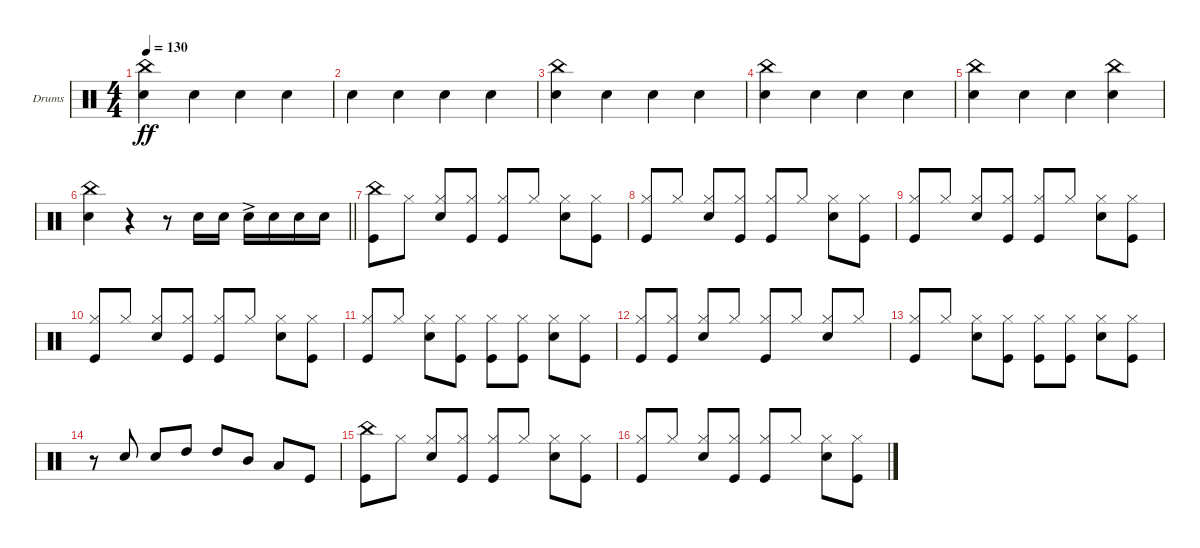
\defaultSystemsLayout 4
\bracketExtendMode groupsimilarinstruments
\firstSystemTrackNameOrientation horizontal
\otherSystemsTrackNameOrientation horizontal
\track ("Drumkit" "Drums") {instrument percussion}
\staff {score}
\articulation defaults
\ts (4 4)
\tempo 130
\clef neutral
\scale
0.333333
\ks c
("Snare (hit) 2" "China (hit)").4{dy ff} "Snare (hit) 2".4 "Snare (hit) 2".4 "Snare (hit) 2".4 |
\scale
0.333333 "Snare (hit) 2".4 "Snare (hit) 2".4 "Snare (hit) 2".4 "Snare (hit) 2".4 |
\scale
0.333333 ("Snare (hit) 2" "China (hit)").4 "Snare (hit) 2".4 "Snare (hit) 2".4 "Snare (hit) 2".4 |
\scale
0.333333 ("Snare (hit) 2" "China (hit)").4 "Snare (hit) 2".4 "Snare (hit) 2".4 "Snare (hit) 2".4 |
\scale
0.333333 ("Snare (hit) 2" "China (hit)").4 "Snare (hit) 2".4 "Snare (hit) 2".4 ("Snare (hit) 2" "China (hit)").4 |
\scale
0.333333
\barLineRight lightlight
("China (hit)" "Snare (hit) 2").4 r.4 r.8 "Snare (hit) 2".16 "Snare (hit) 2".16 "Snare (hit) 2"{ac}.16 "Snare (hit) 2".16 "Snare (hit) 2".16 "Snare (hit) 2".16 |
\scale
0.333333 ("Kick (hit)" "China (hit)").8 "Hi-Hat (closed)".8 ("Hi-Hat (closed)" "Snare (hit) 2").8 ("Hi-Hat (closed)" "Kick (hit)").8 ("Hi-Hat (closed)" "Kick (hit)").8{beam invert} "Hi-Hat (closed)".8 ("Hi-Hat (closed)" "Snare (hit) 2").8 ("Hi-Hat (closed)" "Kick (hit)").8 |
\scale
0.333333 ("Hi-Hat (closed)" "Kick (hit)").8{beam invert} "Hi-Hat (closed)".8 ("Hi-Hat (closed)" "Snare (hit) 2").8 ("Hi-Hat (closed)" "Kick (hit)").8 ("Hi-Hat (closed)" "Kick (hit)").8{beam invert} "Hi-Hat (closed)".8 ("Hi-Hat (closed)" "Snare (hit) 2").8 ("Hi-Hat (closed)" "Kick (hit)").8 |
\scale
0.333333 ("Hi-Hat (closed)" "Kick (hit)").8{beam invert} "Hi-Hat (closed)".8 ("Hi-Hat (closed)" "Snare (hit) 2").8 ("Hi-Hat (closed)" "Kick (hit)").8 ("Hi-Hat (closed)" "Kick (hit)").8{beam invert} "Hi-Hat (closed)".8 ("Hi-Hat (closed)" "Snare (hit) 2").8 ("Hi-Hat (closed)" "Kick (hit)").8 |
\scale
0.333333 ("Hi-Hat (closed)" "Kick (hit)").8{beam invert} "Hi-Hat (closed)".8 ("Hi-Hat (closed)" "Snare (hit) 2").8 ("Hi-Hat (closed)" "Kick (hit)").8 ("Hi-Hat (closed)" "Kick (hit)").8{beam invert} "Hi-Hat (closed)".8 ("Hi-Hat (closed)" "Snare (hit) 2").8 ("Hi-Hat (closed)" "Kick (hit)").8 |
\scale
0.333333 ("Kick (hit)" "Hi-Hat (closed)").8{beam invert} "Hi-Hat (closed)".8 ("Snare (hit) 2" "Hi-Hat (closed)").8 ("Kick (hit)" "Hi-Hat (closed)").8 ("Kick (hit)" "Hi-Hat (closed)").8 ("Kick (hit)" "Hi-Hat (closed)").8 ("Snare (hit) 2" "Hi-Hat (closed)").8 ("Kick (hit)" "Hi-Hat (closed)").8 |
\scale
0.333333 ("Kick (hit)" "Hi-Hat (closed)").8 ("Kick (hit)" "Hi-Hat (closed)").8 ("Snare (hit) 2" "Hi-Hat (closed)").8{beam invert} "Hi-Hat (closed)".8 ("Hi-Hat (closed)" "Kick (hit)").8{beam invert} "Hi-Hat (closed)".8 ("Hi-Hat (closed)" "Snare (hit) 2").8{beam invert} "Hi-Hat (closed)".8 |
\scale
0.333333 ("Kick (hit)" "Hi-Hat (closed)").8{beam invert} "Hi-Hat (closed)".8 ("Snare (hit) 2" "Hi-Hat (closed)").8 ("Kick (hit)" "Hi-Hat (closed)").8 ("Kick (hit)" "Hi-Hat (closed)").8 ("Kick (hit)" "Hi-Hat (closed)").8 ("Snare (hit) 2" "Hi-Hat (closed)").8 ("Kick (hit)" "Hi-Hat (closed)").8 |
\scale
0.333333 r.8 "Snare (hit) 2".8{beam invert} "Snare (hit) 2".8{beam invert} "High Tom (hit)".8 "High Tom (hit)".8{beam invert} "Mid Tom (hit)".8 "Low Tom (hit)".8 "Kick (hit)".8 |
\scale
0.333333 ("Kick (hit)" "China (hit)").8 "Hi-Hat (closed)".8 ("Hi-Hat (closed)" "Snare (hit) 2").8 ("Hi-Hat (closed)" "Kick (hit)").8 ("Hi-Hat (closed)" "Kick (hit)").8{beam invert} "Hi-Hat (closed)".8 ("Hi-Hat (closed)" "Snare (hit) 2").8 ("Hi-Hat (closed)" "Kick (hit)").8 |
\scale
0.333333 ("Hi-Hat (closed)" "Kick (hit)").8{beam invert} "Hi-Hat (closed)".8 ("Hi-Hat (closed)" "Snare (hit) 2").8 ("Hi-Hat (closed)" "Kick (hit)").8 ("Hi-Hat (closed)" "Kick (hit)").8{beam invert} "Hi-Hat (closed)".8 ("Hi-Hat (closed)" "Snare (hit) 2").8 ("Hi-Hat (closed)" "Kick (hit)").8
